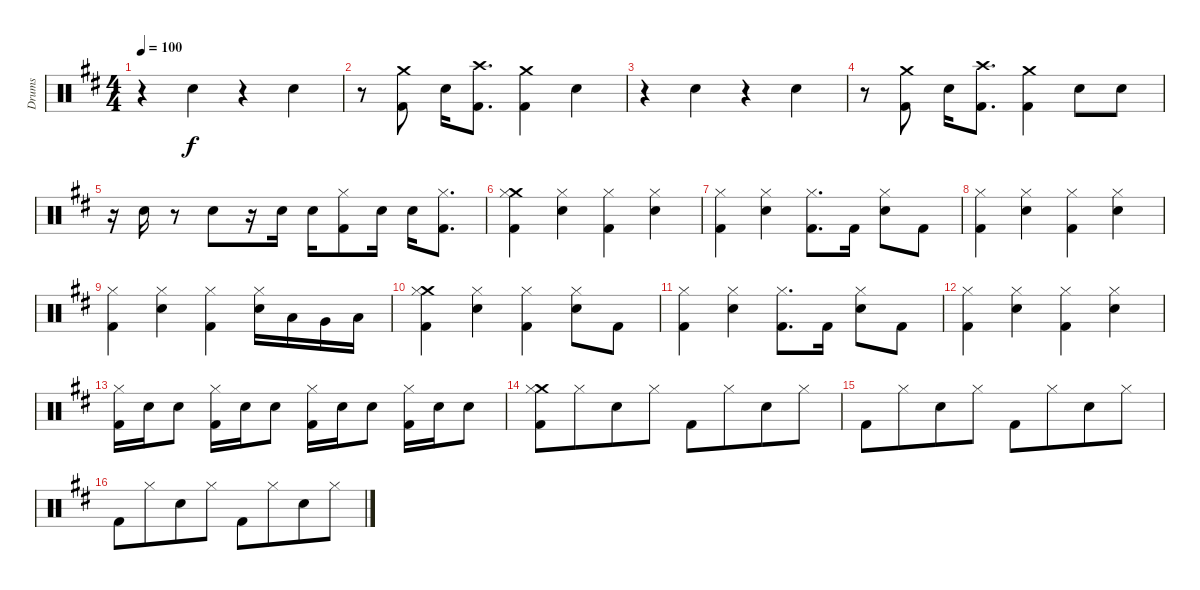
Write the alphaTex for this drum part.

\track ("Drums" "Drums") {instrument percussion}
\staff {score}
\articulation defaults
\ts (4 4)
\tempo 100
\clef neutral
\ks d
r.4{dy f} "Electric Snare (hit)".4 r.4 "Electric Snare (hit)".4 |
r.8 ("Crash medium (hit)" "Kick (hit) 2").8 "Electric Snare (hit)".16 ("Crash high (hit)" "Kick (hit) 2").8{d} ("Crash medium (hit)" "Kick (hit) 2").4 "Electric Snare (hit)".4 |
r.4 "Electric Snare (hit)".4 r.4 "Electric Snare (hit)".4 |
r.8 ("Crash medium (hit)" "Kick (hit) 2").8 "Electric Snare (hit)".16 ("Crash high (hit)" "Kick (hit) 2").8{d} ("Crash medium (hit)" "Kick (hit) 2").4 "Electric Snare (hit)".8 "Electric Snare (hit)".8 |
r.16 "Electric Snare (hit)".16 r.8 "Electric Snare (hit)".8 r.16 "Electric Snare (hit)".16 "Electric Snare (hit)".16 ("Hi-Hat (closed)" "Kick (hit) 2").8 "Electric Snare (hit)".16 "Electric Snare (hit)".16 ("Hi-Hat (closed)" "Kick (hit) 2").8{d} |
("Crash medium (hit)" "Hi-Hat (closed)" "Kick (hit) 2").4 ("Hi-Hat (closed)" "Electric Snare (hit)").4 ("Hi-Hat (closed)" "Kick (hit) 2").4 ("Hi-Hat (closed)" "Electric Snare (hit)").4 |
("Hi-Hat (closed)" "Kick (hit) 2").4 ("Hi-Hat (closed)" "Electric Snare (hit)").4 ("Hi-Hat (closed)" "Kick (hit) 2").8{d} "Kick (hit) 2".16 ("Hi-Hat (closed)" "Electric Snare (hit)").8 "Kick (hit) 2".8 |
("Hi-Hat (closed)" "Kick (hit) 2").4 ("Hi-Hat (closed)" "Electric Snare (hit)").4 ("Hi-Hat (closed)" "Kick (hit) 2").4 ("Hi-Hat (closed)" "Electric Snare (hit)").4 |
("Hi-Hat (closed)" "Kick (hit) 2").4 ("Hi-Hat (closed)" "Electric Snare (hit)").4 ("Hi-Hat (closed)" "Kick (hit) 2").4 ("Hi-Hat (closed)" "Electric Snare (hit)").16 "Low Tom (hit)".16 "Very Low Tom (hit)".16 "Low Floor Tom (hit)".16 |
("Crash medium (hit)" "Hi-Hat (closed)" "Kick (hit) 2").4 ("Hi-Hat (closed)" "Electric Snare (hit)").4 ("Hi-Hat (closed)" "Kick (hit) 2").4 ("Hi-Hat (closed)" "Electric Snare (hit)").8 "Kick (hit) 2".8 |
("Hi-Hat (closed)" "Kick (hit) 2").4 ("Hi-Hat (closed)" "Electric Snare (hit)").4 ("Hi-Hat (closed)" "Kick (hit) 2").8{d} "Kick (hit) 2".16 ("Hi-Hat (closed)" "Electric Snare (hit)").8 "Kick (hit) 2".8 |
("Hi-Hat (closed)" "Kick (hit) 2").4 ("Hi-Hat (closed)" "Electric Snare (hit)").4 ("Hi-Hat (closed)" "Kick (hit) 2").4 ("Hi-Hat (closed)" "Electric Snare (hit)").4 |
("Hi-Hat (closed)" "Kick (hit) 2").16 "Electric Snare (hit)".16 "Electric Snare (hit)".8 ("Hi-Hat (closed)" "Kick (hit) 2").16 "Electric Snare (hit)".16 "Electric Snare (hit)".8 ("Hi-Hat (closed)" "Kick (hit) 2").16 "Electric Snare (hit)".16 "Electric Snare (hit)".8 ("Hi-Hat (closed)" "Kick (hit) 2").16 "Electric Snare (hit)".16 "Electric Snare (hit)".8 |
("Crash medium (hit)" "Hi-Hat (closed)" "Kick (hit) 2").8 "Hi-Hat (closed)".8{beam merge} "Electric Snare (hit)".8 "Hi-Hat (closed)".8 "Kick (hit) 2".8 "Hi-Hat (closed)".8{beam merge} "Electric Snare (hit)".8 "Hi-Hat (closed)".8 |
"Kick (hit) 2".8 "Hi-Hat (closed)".8{beam merge} "Electric Snare (hit)".8 "Hi-Hat (closed)".8 "Kick (hit) 2".8 "Hi-Hat (closed)".8{beam merge} "Electric Snare (hit)".8 "Hi-Hat (closed)".8 |
"Kick (hit) 2".8 "Hi-Hat (closed)".8{beam merge} "Electric Snare (hit)".8 "Hi-Hat (closed)".8 "Kick (hit) 2".8 "Hi-Hat (closed)".8{beam merge} "Electric Snare (hit)".8 "Hi-Hat (closed)".8
